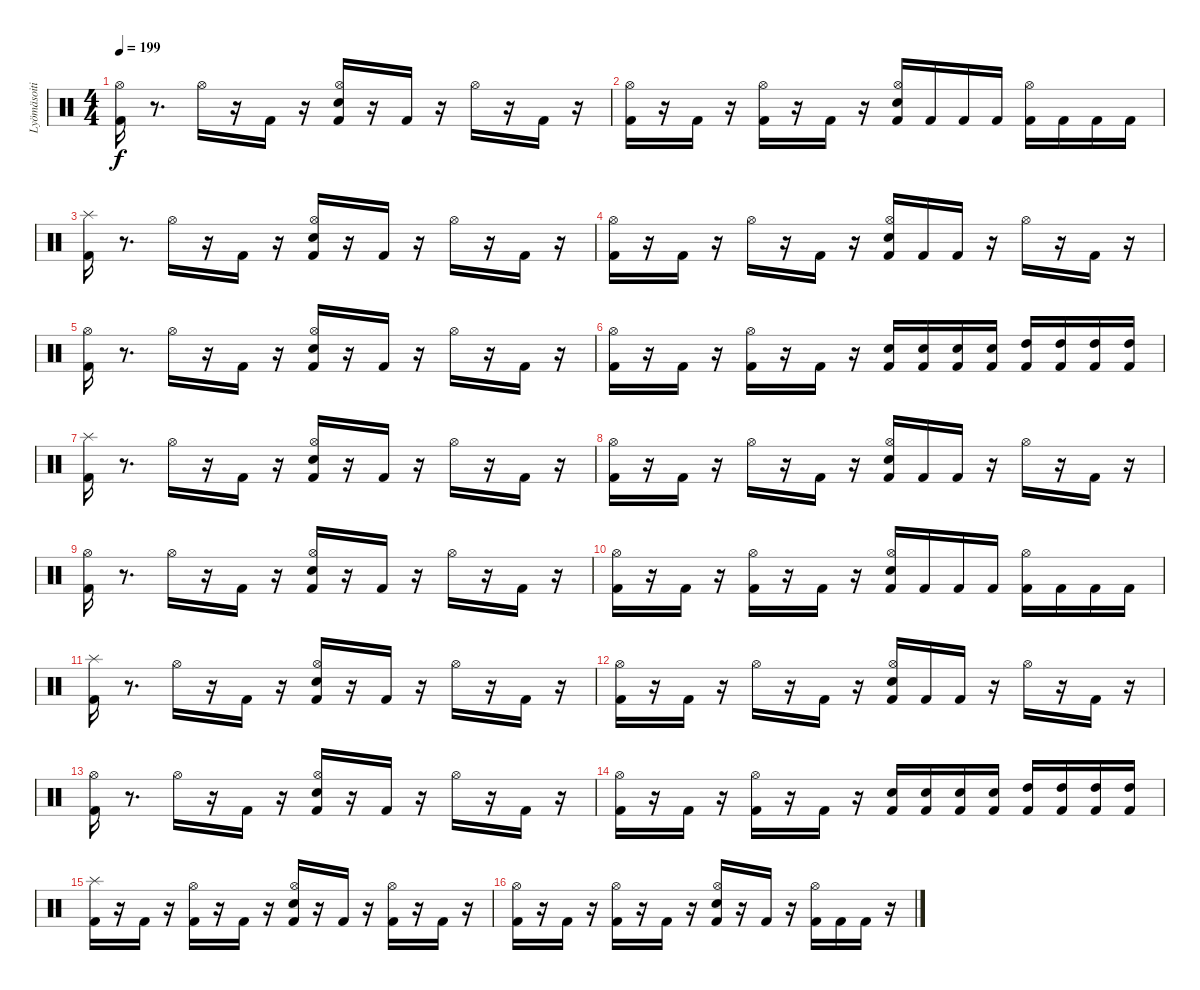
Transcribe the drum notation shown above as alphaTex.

\track ("Lyömäsoitin" "Lyömäsoiti") {instrument percussion}
\staff {score}
\articulation defaults
\ts (4 4)
\tempo 199
\clef neutral
\ks c
("Kick (hit) 2" "Hi-Hat (open)").16{dy f} r.8{d} "Hi-Hat (open)".16 r.16 "Kick (hit) 2".16 r.16 ("Kick (hit) 2" "Hi-Hat (open)" "Snare (hit) 2").16 r.16 "Kick (hit) 2".16 r.16 "Hi-Hat (open)".16 r.16 "Kick (hit) 2".16 r.16 |
("Kick (hit) 2" "Hi-Hat (open)").16 r.16 "Kick (hit) 2".16 r.16 ("Kick (hit) 2" "Hi-Hat (open)").16 r.16 "Kick (hit) 2".16 r.16 ("Kick (hit) 2" "Hi-Hat (open)" "Snare (hit) 2").16 "Kick (hit) 2".16 "Kick (hit) 2".16 "Kick (hit) 2".16 ("Kick (hit) 2" "Hi-Hat (open)").16 "Kick (hit) 2".16 "Kick (hit) 2".16 "Kick (hit) 2".16 |
("Kick (hit) 2" "Splash (hit)").16 r.8{d} "Hi-Hat (open)".16 r.16 "Kick (hit) 2".16 r.16 ("Kick (hit) 2" "Hi-Hat (open)" "Snare (hit) 2").16 r.16 "Kick (hit) 2".16 r.16 "Hi-Hat (open)".16 r.16 "Kick (hit) 2".16 r.16 |
("Kick (hit) 2" "Hi-Hat (open)").16 r.16 "Kick (hit) 2".16 r.16 "Hi-Hat (open)".16 r.16 "Kick (hit) 2".16 r.16 ("Kick (hit) 2" "Hi-Hat (open)" "Snare (hit) 2").16 "Kick (hit) 2".16 "Kick (hit) 2".16 r.16 "Hi-Hat (open)".16 r.16 "Kick (hit) 2".16 r.16 |
("Kick (hit) 2" "Hi-Hat (open)").16 r.8{d} "Hi-Hat (open)".16 r.16 "Kick (hit) 2".16 r.16 ("Kick (hit) 2" "Hi-Hat (open)" "Snare (hit) 2").16 r.16 "Kick (hit) 2".16 r.16 "Hi-Hat (open)".16 r.16 "Kick (hit) 2".16 r.16 |
("Kick (hit) 2" "Hi-Hat (open)").16 r.16 "Kick (hit) 2".16 r.16 ("Kick (hit) 2" "Hi-Hat (open)").16 r.16 "Kick (hit) 2".16 r.16 ("Kick (hit) 2" "Snare (hit) 2").16 ("Kick (hit) 2" "Snare (hit) 2").16 ("Kick (hit) 2" "Snare (hit) 2").16 ("Kick (hit) 2" "Snare (hit) 2").16 ("Kick (hit) 2" "High Tom (hit)").16 ("Kick (hit) 2" "High Tom (hit)").16 ("Kick (hit) 2" "High Tom (hit)").16 ("Kick (hit) 2" "High Tom (hit)").16 |
("Kick (hit) 2" "Splash (hit)").16 r.8{d} "Hi-Hat (open)".16 r.16 "Kick (hit) 2".16 r.16 ("Kick (hit) 2" "Hi-Hat (open)" "Snare (hit) 2").16 r.16 "Kick (hit) 2".16 r.16 "Hi-Hat (open)".16 r.16 "Kick (hit) 2".16 r.16 |
("Kick (hit) 2" "Hi-Hat (open)").16 r.16 "Kick (hit) 2".16 r.16 "Hi-Hat (open)".16 r.16 "Kick (hit) 2".16 r.16 ("Kick (hit) 2" "Hi-Hat (open)" "Snare (hit) 2").16 "Kick (hit) 2".16 "Kick (hit) 2".16 r.16 "Hi-Hat (open)".16 r.16 "Kick (hit) 2".16 r.16 |
("Kick (hit) 2" "Hi-Hat (open)").16 r.8{d} "Hi-Hat (open)".16 r.16 "Kick (hit) 2".16 r.16 ("Kick (hit) 2" "Hi-Hat (open)" "Snare (hit) 2").16 r.16 "Kick (hit) 2".16 r.16 "Hi-Hat (open)".16 r.16 "Kick (hit) 2".16 r.16 |
("Kick (hit) 2" "Hi-Hat (open)").16 r.16 "Kick (hit) 2".16 r.16 ("Kick (hit) 2" "Hi-Hat (open)").16 r.16 "Kick (hit) 2".16 r.16 ("Kick (hit) 2" "Hi-Hat (open)" "Snare (hit) 2").16 "Kick (hit) 2".16 "Kick (hit) 2".16 "Kick (hit) 2".16 ("Kick (hit) 2" "Hi-Hat (open)").16 "Kick (hit) 2".16 "Kick (hit) 2".16 "Kick (hit) 2".16 |
("Kick (hit) 2" "Splash (hit)").16 r.8{d} "Hi-Hat (open)".16 r.16 "Kick (hit) 2".16 r.16 ("Kick (hit) 2" "Hi-Hat (open)" "Snare (hit) 2").16 r.16 "Kick (hit) 2".16 r.16 "Hi-Hat (open)".16 r.16 "Kick (hit) 2".16 r.16 |
("Kick (hit) 2" "Hi-Hat (open)").16 r.16 "Kick (hit) 2".16 r.16 "Hi-Hat (open)".16 r.16 "Kick (hit) 2".16 r.16 ("Kick (hit) 2" "Hi-Hat (open)" "Snare (hit) 2").16 "Kick (hit) 2".16 "Kick (hit) 2".16 r.16 "Hi-Hat (open)".16 r.16 "Kick (hit) 2".16 r.16 |
("Kick (hit) 2" "Hi-Hat (open)").16 r.8{d} "Hi-Hat (open)".16 r.16 "Kick (hit) 2".16 r.16 ("Kick (hit) 2" "Hi-Hat (open)" "Snare (hit) 2").16 r.16 "Kick (hit) 2".16 r.16 "Hi-Hat (open)".16 r.16 "Kick (hit) 2".16 r.16 |
("Kick (hit) 2" "Hi-Hat (open)").16 r.16 "Kick (hit) 2".16 r.16 ("Kick (hit) 2" "Hi-Hat (open)").16 r.16 "Kick (hit) 2".16 r.16 ("Kick (hit) 2" "Snare (hit) 2").16 ("Kick (hit) 2" "Snare (hit) 2").16 ("Kick (hit) 2" "Snare (hit) 2").16 ("Kick (hit) 2" "Snare (hit) 2").16 ("Kick (hit) 2" "High Tom (hit)").16 ("Kick (hit) 2" "High Tom (hit)").16 ("Kick (hit) 2" "High Tom (hit)").16 ("Kick (hit) 2" "High Tom (hit)").16 |
("Kick (hit) 2" "Splash (hit)").16 r.16 "Kick (hit) 2".16 r.16 ("Kick (hit) 2" "Hi-Hat (open)").16 r.16 "Kick (hit) 2".16 r.16 ("Kick (hit) 2" "Hi-Hat (open)" "Snare (hit) 2").16 r.16 "Kick (hit) 2".16 r.16 ("Kick (hit) 2" "Hi-Hat (open)").16 r.16 "Kick (hit) 2".16 r.16 |
("Kick (hit) 2" "Hi-Hat (open)").16 r.16 "Kick (hit) 2".16 r.16 ("Kick (hit) 2" "Hi-Hat (open)").16 r.16 "Kick (hit) 2".16 r.16 ("Kick (hit) 2" "Hi-Hat (open)" "Snare (hit) 2").16 r.16 "Kick (hit) 2".16 r.16 ("Kick (hit) 2" "Hi-Hat (open)").16 "Kick (hit) 2".16 "Kick (hit) 2".16 r.16
